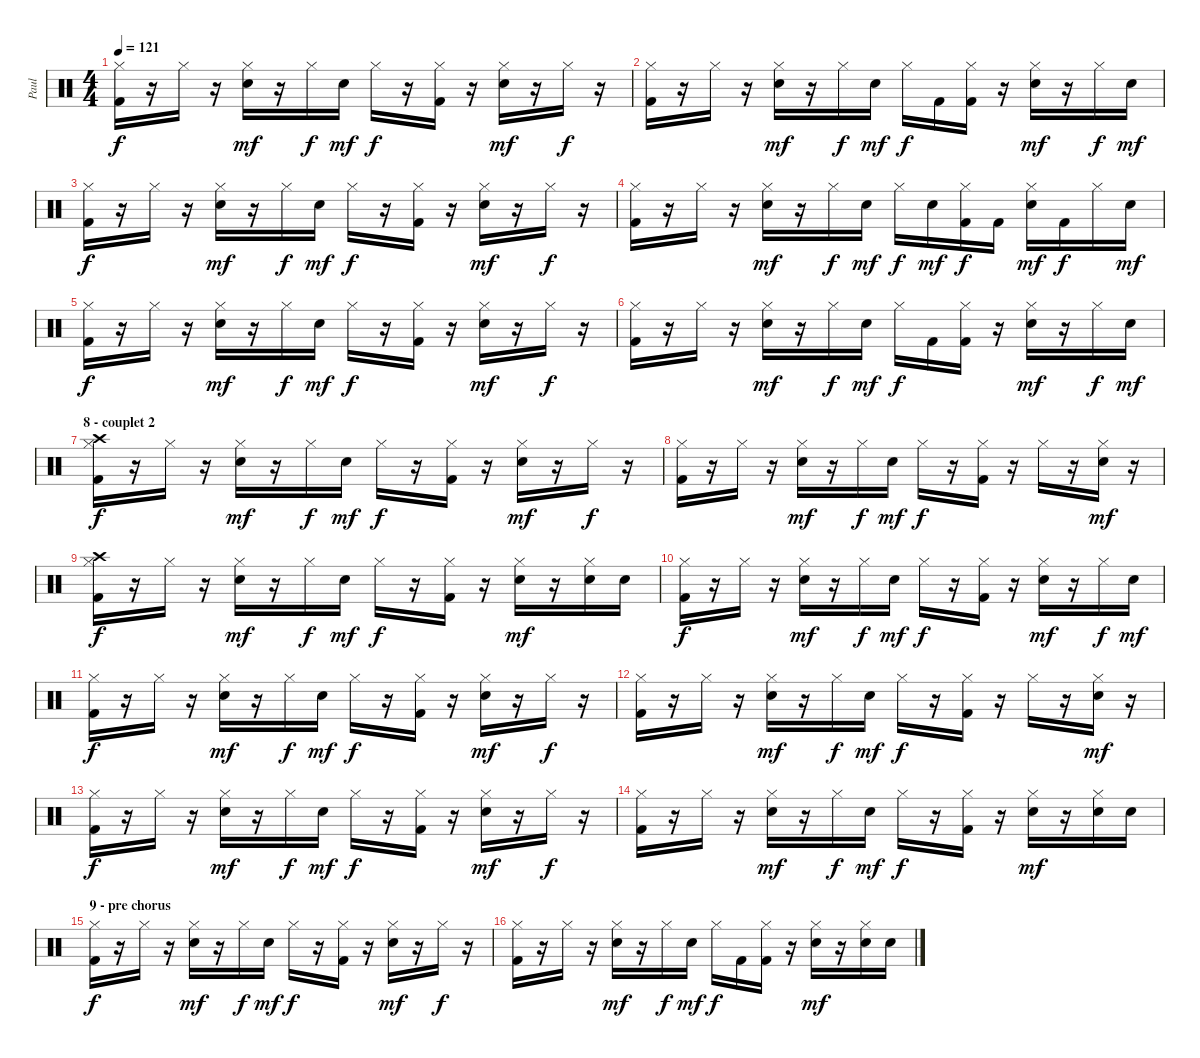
\track ("Paul" "Paul") {instrument percussion}
\staff {score}
\articulation defaults
\ts (4 4)
\tempo 121
\clef neutral
\ks c
("Hi-Hat (closed)" "Kick (hit) 2").16{dy f} r.16 "Hi-Hat (closed)".16 r.16 ("Hi-Hat (closed)" "Snare (hit) 2").16{dy mf} r.16 "Hi-Hat (closed)".16{dy f} "Snare (hit) 2".16{dy mf} "Hi-Hat (closed)".16{dy f} r.16 ("Hi-Hat (closed)" "Kick (hit) 2").16 r.16 ("Hi-Hat (closed)" "Snare (hit) 2").16{dy mf} r.16 "Hi-Hat (closed)".16{dy f} r.16 |
("Hi-Hat (closed)" "Kick (hit) 2").16 r.16 "Hi-Hat (closed)".16 r.16 ("Hi-Hat (closed)" "Snare (hit) 2").16{dy mf} r.16 "Hi-Hat (closed)".16{dy f} "Snare (hit) 2".16{dy mf} "Hi-Hat (closed)".16{dy f} "Kick (hit) 2".16 ("Hi-Hat (closed)" "Kick (hit) 2").16 r.16 ("Hi-Hat (closed)" "Snare (hit) 2").16{dy mf} r.16 "Hi-Hat (closed)".16{dy f} "Snare (hit) 2".16{dy mf} |
("Hi-Hat (closed)" "Kick (hit) 2").16{dy f} r.16 "Hi-Hat (closed)".16 r.16 ("Hi-Hat (closed)" "Snare (hit) 2").16{dy mf} r.16 "Hi-Hat (closed)".16{dy f} "Snare (hit) 2".16{dy mf} "Hi-Hat (closed)".16{dy f} r.16 ("Hi-Hat (closed)" "Kick (hit) 2").16 r.16 ("Hi-Hat (closed)" "Snare (hit) 2").16{dy mf} r.16 "Hi-Hat (closed)".16{dy f} r.16 |
("Hi-Hat (closed)" "Kick (hit) 2").16 r.16 "Hi-Hat (closed)".16 r.16 ("Hi-Hat (closed)" "Snare (hit) 2").16{dy mf} r.16 "Hi-Hat (closed)".16{dy f} "Snare (hit) 2".16{dy mf} "Hi-Hat (closed)".16{dy f} "Snare (hit) 2".16{dy mf} ("Hi-Hat (closed)" "Kick (hit) 2").16{dy f} "Kick (hit) 2".16 ("Hi-Hat (closed)" "Snare (hit) 2").16{dy mf} "Kick (hit) 2".16{dy f} "Hi-Hat (closed)".16 "Snare (hit) 2".16{dy mf} |
("Hi-Hat (closed)" "Kick (hit) 2").16{dy f} r.16 "Hi-Hat (closed)".16 r.16 ("Hi-Hat (closed)" "Snare (hit) 2").16{dy mf} r.16 "Hi-Hat (closed)".16{dy f} "Snare (hit) 2".16{dy mf} "Hi-Hat (closed)".16{dy f} r.16 ("Hi-Hat (closed)" "Kick (hit) 2").16 r.16 ("Hi-Hat (closed)" "Snare (hit) 2").16{dy mf} r.16 "Hi-Hat (closed)".16{dy f} r.16 |
("Hi-Hat (closed)" "Kick (hit) 2").16 r.16 "Hi-Hat (closed)".16 r.16 ("Hi-Hat (closed)" "Snare (hit) 2").16{dy mf} r.16 "Hi-Hat (closed)".16{dy f} "Snare (hit) 2".16{dy mf} "Hi-Hat (closed)".16{dy f} "Kick (hit) 2".16 ("Hi-Hat (closed)" "Kick (hit) 2").16 r.16 ("Hi-Hat (closed)" "Snare (hit) 2").16{dy mf} r.16 "Hi-Hat (closed)".16{dy f} "Snare (hit) 2".16{dy mf} |
\section ("" "8 - couplet 2")
("Hi-Hat (closed)" "Crash high (hit)" "Kick (hit) 2").16{dy f} r.16 "Hi-Hat (closed)".16 r.16 ("Hi-Hat (closed)" "Snare (hit) 2").16{dy mf} r.16 "Hi-Hat (closed)".16{dy f} "Snare (hit) 2".16{dy mf} "Hi-Hat (closed)".16{dy f} r.16 ("Hi-Hat (closed)" "Kick (hit) 2").16 r.16 ("Hi-Hat (closed)" "Snare (hit) 2").16{dy mf} r.16 "Hi-Hat (closed)".16{dy f} r.16 |
("Hi-Hat (closed)" "Kick (hit) 2").16 r.16 "Hi-Hat (closed)".16 r.16 ("Hi-Hat (closed)" "Snare (hit) 2").16{dy mf} r.16 "Hi-Hat (closed)".16{dy f} "Snare (hit) 2".16{dy mf} "Hi-Hat (closed)".16{dy f} r.16 ("Hi-Hat (closed)" "Kick (hit) 2").16 r.16 "Hi-Hat (closed)".16 r.16 ("Hi-Hat (closed)" "Snare (hit) 2").16{dy mf} r.16 |
("Hi-Hat (closed)" "Crash high (hit)" "Kick (hit) 2").16{dy f} r.16 "Hi-Hat (closed)".16 r.16 ("Hi-Hat (closed)" "Snare (hit) 2").16{dy mf} r.16 "Hi-Hat (closed)".16{dy f} "Snare (hit) 2".16{dy mf} "Hi-Hat (closed)".16{dy f} r.16 ("Hi-Hat (closed)" "Kick (hit) 2").16 r.16 ("Hi-Hat (closed)" "Snare (hit) 2").16{dy mf} r.16 ("Hi-Hat (closed)" "Snare (hit) 2").16 "Snare (hit) 2".16 |
("Hi-Hat (closed)" "Kick (hit) 2").16{dy f} r.16 "Hi-Hat (closed)".16 r.16 ("Hi-Hat (closed)" "Snare (hit) 2").16{dy mf} r.16 "Hi-Hat (closed)".16{dy f} "Snare (hit) 2".16{dy mf} "Hi-Hat (closed)".16{dy f} r.16 ("Hi-Hat (closed)" "Kick (hit) 2").16 r.16 ("Hi-Hat (closed)" "Snare (hit) 2").16{dy mf} r.16 "Hi-Hat (closed)".16{dy f} "Snare (hit) 2".16{dy mf} |
("Hi-Hat (closed)" "Kick (hit) 2").16{dy f} r.16 "Hi-Hat (closed)".16 r.16 ("Hi-Hat (closed)" "Snare (hit) 2").16{dy mf} r.16 "Hi-Hat (closed)".16{dy f} "Snare (hit) 2".16{dy mf} "Hi-Hat (closed)".16{dy f} r.16 ("Hi-Hat (closed)" "Kick (hit) 2").16 r.16 ("Hi-Hat (closed)" "Snare (hit) 2").16{dy mf} r.16 "Hi-Hat (closed)".16{dy f} r.16 |
("Hi-Hat (closed)" "Kick (hit) 2").16 r.16 "Hi-Hat (closed)".16 r.16 ("Hi-Hat (closed)" "Snare (hit) 2").16{dy mf} r.16 "Hi-Hat (closed)".16{dy f} "Snare (hit) 2".16{dy mf} "Hi-Hat (closed)".16{dy f} r.16 ("Hi-Hat (closed)" "Kick (hit) 2").16 r.16 "Hi-Hat (closed)".16 r.16 ("Hi-Hat (closed)" "Snare (hit) 2").16{dy mf} r.16 |
("Hi-Hat (closed)" "Kick (hit) 2").16{dy f} r.16 "Hi-Hat (closed)".16 r.16 ("Hi-Hat (closed)" "Snare (hit) 2").16{dy mf} r.16 "Hi-Hat (closed)".16{dy f} "Snare (hit) 2".16{dy mf} "Hi-Hat (closed)".16{dy f} r.16 ("Hi-Hat (closed)" "Kick (hit) 2").16 r.16 ("Hi-Hat (closed)" "Snare (hit) 2").16{dy mf} r.16 "Hi-Hat (closed)".16{dy f} r.16 |
("Hi-Hat (closed)" "Kick (hit) 2").16 r.16 "Hi-Hat (closed)".16 r.16 ("Hi-Hat (closed)" "Snare (hit) 2").16{dy mf} r.16 "Hi-Hat (closed)".16{dy f} "Snare (hit) 2".16{dy mf} "Hi-Hat (closed)".16{dy f} r.16 ("Hi-Hat (closed)" "Kick (hit) 2").16 r.16 ("Hi-Hat (closed)" "Snare (hit) 2").16{dy mf} r.16 ("Hi-Hat (closed)" "Snare (hit) 2").16 "Snare (hit) 2".16 |
\section ("" "9 - pre chorus")
("Hi-Hat (closed)" "Kick (hit) 2").16{dy f} r.16 "Hi-Hat (closed)".16 r.16 ("Hi-Hat (closed)" "Snare (hit) 2").16{dy mf} r.16 "Hi-Hat (closed)".16{dy f} "Snare (hit) 2".16{dy mf} "Hi-Hat (closed)".16{dy f} r.16 ("Hi-Hat (closed)" "Kick (hit) 2").16 r.16 ("Hi-Hat (closed)" "Snare (hit) 2").16{dy mf} r.16 "Hi-Hat (closed)".16{dy f} r.16 |
("Hi-Hat (closed)" "Kick (hit) 2").16 r.16 "Hi-Hat (closed)".16 r.16 ("Hi-Hat (closed)" "Snare (hit) 2").16{dy mf} r.16 "Hi-Hat (closed)".16{dy f} "Snare (hit) 2".16{dy mf} "Hi-Hat (closed)".16{dy f} "Kick (hit) 2".16 ("Hi-Hat (closed)" "Kick (hit) 2").16 r.16 ("Hi-Hat (closed)" "Snare (hit) 2").16{dy mf} r.16 ("Hi-Hat (closed)" "Snare (hit) 2").16 "Snare (hit) 2".16
